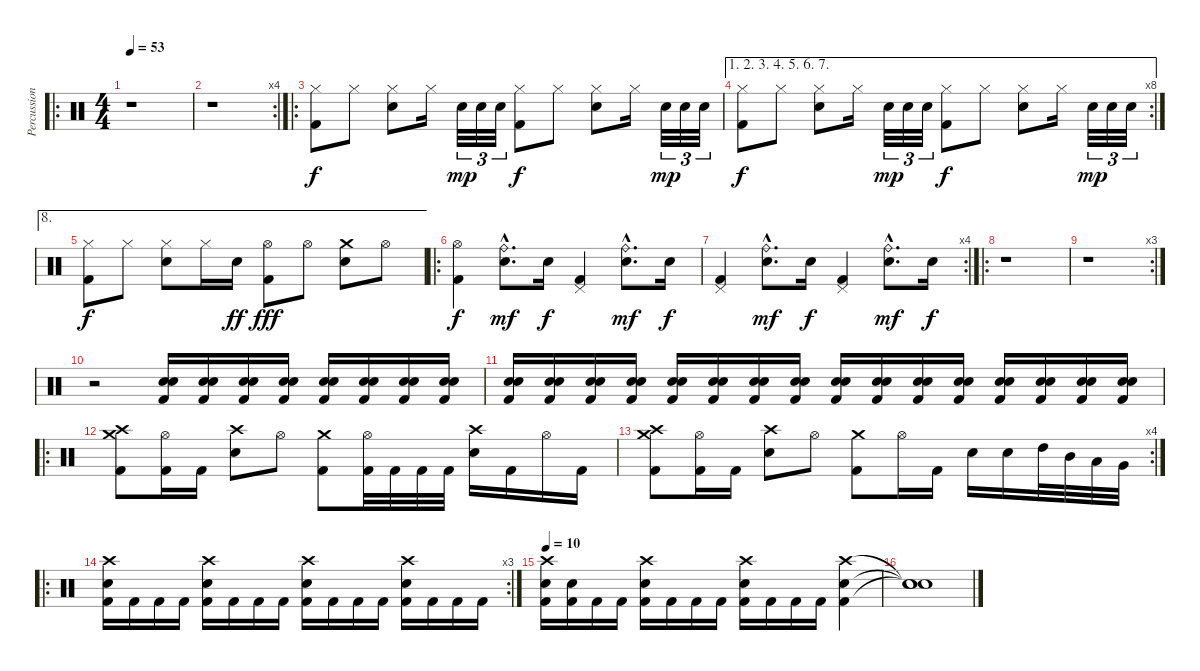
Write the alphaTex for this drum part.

\track ("Percussions" "Percussion") {instrument percussion}
\staff {score}
\articulation defaults
\ro
\ts (4 4)
\tempo 53
\clef neutral
\ks c
r.1{dy f} |
\rc 4
r.1 |
\ro
("Hi-Hat (closed)" "Kick (hit) 2").8 "Hi-Hat (closed)".8 ("Hi-Hat (closed)" "Electric Snare (hit)").8 "Hi-Hat (closed)".16 "Snare (hit) 2".32{tu (3 2) dy mp} "Snare (hit) 2".32{tu (3 2)} "Snare (hit) 2".32{tu (3 2)} ("Hi-Hat (closed)" "Kick (hit) 2").8{dy f} "Hi-Hat (closed)".8 ("Hi-Hat (closed)" "Electric Snare (hit)").8 "Hi-Hat (closed)".16 "Snare (hit) 2".32{tu (3 2) dy mp} "Snare (hit) 2".32{tu (3 2)} "Snare (hit) 2".32{tu (3 2)} |
\ae (1 2 3 4 5 6 7)
\rc 8
("Hi-Hat (closed)" "Kick (hit) 2").8{dy f} "Hi-Hat (closed)".8 ("Hi-Hat (closed)" "Electric Snare (hit)").8 "Hi-Hat (closed)".16 "Snare (hit) 2".32{tu (3 2) dy mp} "Snare (hit) 2".32{tu (3 2)} "Snare (hit) 2".32{tu (3 2)} ("Hi-Hat (closed)" "Kick (hit) 2").8{dy f} "Hi-Hat (closed)".8 ("Hi-Hat (closed)" "Electric Snare (hit)").8 "Hi-Hat (closed)".16 "Snare (hit) 2".32{tu (3 2) dy mp} "Snare (hit) 2".32{tu (3 2)} "Snare (hit) 2".32{tu (3 2)} |
\ae 8
("Hi-Hat (closed)" "Kick (hit) 2").8{dy f} "Hi-Hat (closed)".8 ("Hi-Hat (closed)" "Electric Snare (hit)").8 "Hi-Hat (closed)".16 "Electric Snare (hit)".16{dy ff} ("Hi-Hat (open)" "Kick (hit) 2").8{dy fff} "Hi-Hat (open)".8 ("Crash medium (hit)" "Electric Snare (hit)").8 "Hi-Hat (open)".8 |
\ro
("Hi-Hat (open)" "Kick (hit) 2").4{dy f} ("Ride (bell)"{hac} "Electric Snare (hit)"{hac}).8{d dy mf} "Electric Snare (hit)".16{dy f} ("Pedal Hi-Hat (hit)" "Kick (hit) 2").4 ("Ride (bell)"{hac} "Electric Snare (hit)"{hac}).8{d dy mf} "Electric Snare (hit)".16{dy f} |
\rc 4
("Pedal Hi-Hat (hit)" "Kick (hit) 2").4 ("Ride (bell)"{hac} "Electric Snare (hit)"{hac}).8{d dy mf} "Electric Snare (hit)".16{dy f} ("Pedal Hi-Hat (hit)" "Kick (hit) 2").4 ("Ride (bell)"{hac} "Electric Snare (hit)"{hac}).8{d dy mf} "Electric Snare (hit)".16{dy f} |
\ro
r.1 |
\rc 3
r.1 |
r.2{volume 0} ("Electric Snare (hit)" "Snare (hit) 2" "Kick (hit) 2").16{volume 15} ("Electric Snare (hit)" "Snare (hit) 2" "Kick (hit) 2").16 ("Electric Snare (hit)" "Snare (hit) 2" "Kick (hit) 2").16 ("Electric Snare (hit)" "Snare (hit) 2" "Kick (hit) 2").16 ("Electric Snare (hit)" "Snare (hit) 2" "Kick (hit) 2").16 ("Electric Snare (hit)" "Snare (hit) 2" "Kick (hit) 2").16 ("Electric Snare (hit)" "Snare (hit) 2" "Kick (hit) 2").16 ("Electric Snare (hit)" "Snare (hit) 2" "Kick (hit) 2").16 |
("Electric Snare (hit)" "Snare (hit) 2" "Kick (hit) 2").16 ("Electric Snare (hit)" "Snare (hit) 2" "Kick (hit) 2").16 ("Electric Snare (hit)" "Snare (hit) 2" "Kick (hit) 2").16 ("Electric Snare (hit)" "Snare (hit) 2" "Kick (hit) 2").16 ("Electric Snare (hit)" "Snare (hit) 2" "Kick (hit) 2").16 ("Electric Snare (hit)" "Snare (hit) 2" "Kick (hit) 2").16 ("Electric Snare (hit)" "Snare (hit) 2" "Kick (hit) 2").16 ("Electric Snare (hit)" "Snare (hit) 2" "Kick (hit) 2").16 ("Electric Snare (hit)" "Snare (hit) 2" "Kick (hit) 2").16 ("Electric Snare (hit)" "Snare (hit) 2" "Kick (hit) 2").16 ("Electric Snare (hit)" "Snare (hit) 2" "Kick (hit) 2").16 ("Electric Snare (hit)" "Snare (hit) 2" "Kick (hit) 2").16 ("Electric Snare (hit)" "Snare (hit) 2" "Kick (hit) 2").16 ("Electric Snare (hit)" "Snare (hit) 2" "Kick (hit) 2").16 ("Electric Snare (hit)" "Snare (hit) 2" "Kick (hit) 2").16 ("Electric Snare (hit)" "Snare (hit) 2" "Kick (hit) 2").16 |
\ro
("Crash medium (hit)" "Crash high (hit)" "Kick (hit) 2").8{volume 16} ("Hi-Hat (open)" "Kick (hit) 2").16 "Kick (hit) 2".16 ("Crash high (hit)" "Electric Snare (hit)").8 "Hi-Hat (open)".8 ("Crash medium (hit)" "Kick (hit) 2").8 ("Hi-Hat (open)" "Kick (hit) 2").32 "Kick (hit) 2".32 "Kick (hit) 2".32 "Kick (hit) 2".32 ("Crash high (hit)" "Electric Snare (hit)").16 "Kick (hit) 2".16 "Hi-Hat (open)".16 "Kick (hit) 2".16 |
\rc 4
("Crash medium (hit)" "Crash high (hit)" "Kick (hit) 2").8 ("Hi-Hat (open)" "Kick (hit) 2").16 "Kick (hit) 2".16 ("Crash high (hit)" "Electric Snare (hit)").8 "Hi-Hat (open)".8 ("Crash medium (hit)" "Kick (hit) 2").8 "Hi-Hat (open)".16 "Kick (hit) 2".16 "Electric Snare (hit)".16 "Snare (hit) 2".16 "High Tom (hit)".32 "Mid Tom (hit)".32 "Low Tom (hit)".32 "Very Low Tom (hit)".32 |
\ro
\rc 3
("Crash high (hit)" "Electric Snare (hit)" "Kick (hit) 2").16 "Kick (hit) 2".16 "Kick (hit) 2".16 "Kick (hit) 2".16 ("Crash high (hit)" "Electric Snare (hit)" "Kick (hit) 2").16 "Kick (hit) 2".16 "Kick (hit) 2".16 "Kick (hit) 2".16 ("Crash high (hit)" "Electric Snare (hit)" "Kick (hit) 2").16 "Kick (hit) 2".16 "Kick (hit) 2".16 "Kick (hit) 2".16 ("Crash high (hit)" "Electric Snare (hit)" "Kick (hit) 2").16 "Kick (hit) 2".16 "Kick (hit) 2".16 "Kick (hit) 2".16 |
\tempo 10
("Crash high (hit)" "Electric Snare (hit)" "Kick (hit) 2").16 ("Snare (hit) 2" "Kick (hit) 2").16 "Kick (hit) 2".16 "Kick (hit) 2".16 ("Crash high (hit)" "Electric Snare (hit)" "Kick (hit) 2").16 "Kick (hit) 2".16 "Kick (hit) 2".16 "Kick (hit) 2".16 ("Crash high (hit)" "Electric Snare (hit)" "Kick (hit) 2").16 "Kick (hit) 2".16 "Kick (hit) 2".16 "Kick (hit) 2".16 ("Crash high (hit)" "Electric Snare (hit)" "Kick (hit) 2").4 |
("Snare (hit)"{t} "Snare (hit)"{t} "Snare (hit)"{t}).1
